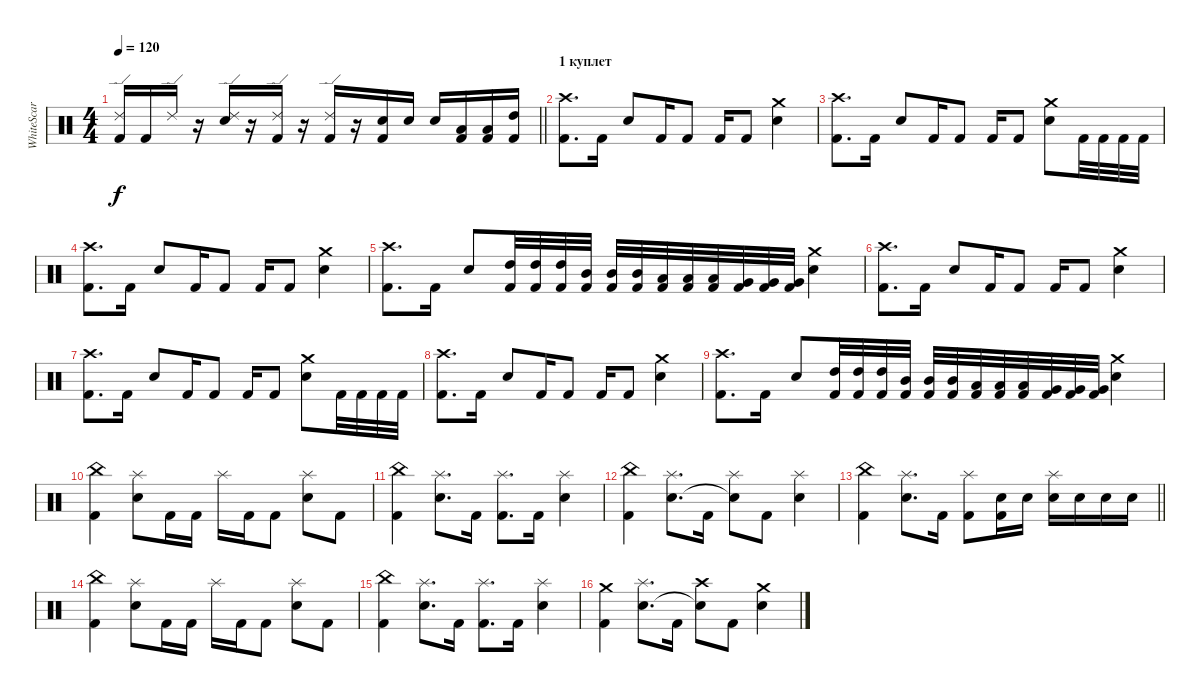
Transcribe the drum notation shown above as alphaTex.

\track ("WhiteScar" "WhiteScar") {instrument percussion}
\staff {score}
\articulation defaults
\ts (4 4)
\tempo 120
\clef neutral
\barLineRight lightlight
\ks c
("Ride (edge) 2" "Kick (hit) 2").16{dy f} "Kick (hit) 2".16 "Ride (edge) 2".16 r.16 ("Ride (edge) 2" "Snare (hit) 2").16 r.16 ("Ride (edge) 2" "Kick (hit) 2").16 r.16 ("Ride (edge) 2" "Kick (hit) 2").16 r.16 ("Snare (hit) 2" "Kick (hit) 2").16 "Snare (hit) 2".16 "Snare (hit) 2".16 ("Low Tom (hit)" "Kick (hit) 2").16 ("Low Tom (hit)" "Kick (hit) 2").16 ("High Tom (hit)" "Kick (hit) 2").16 |
\section ("" "1 куплет")
("Crash high (hit)" "Kick (hit) 2").8{d} "Kick (hit) 2".16 "Snare (hit) 2".8 "Kick (hit) 2".16 "Kick (hit) 2".8 "Kick (hit) 2".16 "Kick (hit) 2".8 ("Crash medium (hit)" "Snare (hit) 2").4 |
("Crash high (hit)" "Kick (hit) 2").8{d} "Kick (hit) 2".16 "Snare (hit) 2".8 "Kick (hit) 2".16 "Kick (hit) 2".8 "Kick (hit) 2".16 "Kick (hit) 2".8 ("Crash medium (hit)" "Snare (hit) 2").8 "Kick (hit) 2".32 "Kick (hit) 2".32 "Kick (hit) 2".32 "Kick (hit) 2".32 |
("Crash high (hit)" "Kick (hit) 2").8{d} "Kick (hit) 2".16 "Snare (hit) 2".8 "Kick (hit) 2".16 "Kick (hit) 2".8 "Kick (hit) 2".16 "Kick (hit) 2".8 ("Crash medium (hit)" "Snare (hit) 2").4 |
("Crash high (hit)" "Kick (hit) 2").8{d} "Kick (hit) 2".16 "Snare (hit) 2".8 ("High Tom (hit)" "Kick (hit) 2").32 ("High Tom (hit)" "Kick (hit) 2").32 ("High Tom (hit)" "Kick (hit) 2").32 ("Mid Tom (hit)" "Kick (hit) 2").32 ("Mid Tom (hit)" "Kick (hit) 2").32 ("Mid Tom (hit)" "Kick (hit) 2").32 ("Low Tom (hit)" "Kick (hit) 2").32 ("Low Tom (hit)" "Kick (hit) 2").32 ("Low Tom (hit)" "Kick (hit) 2").32 ("Very Low Tom (hit)" "Kick (hit) 2").32 ("Very Low Tom (hit)" "Kick (hit) 2").32 ("Very Low Tom (hit)" "Kick (hit) 2").32 ("Crash medium (hit)" "Snare (hit) 2").4 |
("Crash high (hit)" "Kick (hit) 2").8{d} "Kick (hit) 2".16 "Snare (hit) 2".8 "Kick (hit) 2".16 "Kick (hit) 2".8 "Kick (hit) 2".16 "Kick (hit) 2".8 ("Crash medium (hit)" "Snare (hit) 2").4 |
("Crash high (hit)" "Kick (hit) 2").8{d} "Kick (hit) 2".16 "Snare (hit) 2".8 "Kick (hit) 2".16 "Kick (hit) 2".8 "Kick (hit) 2".16 "Kick (hit) 2".8 ("Crash medium (hit)" "Snare (hit) 2").8 "Kick (hit) 2".32 "Kick (hit) 2".32 "Kick (hit) 2".32 "Kick (hit) 2".32 |
("Crash high (hit)" "Kick (hit) 2").8{d} "Kick (hit) 2".16 "Snare (hit) 2".8 "Kick (hit) 2".16 "Kick (hit) 2".8 "Kick (hit) 2".16 "Kick (hit) 2".8 ("Crash medium (hit)" "Snare (hit) 2").4 |
("Crash high (hit)" "Kick (hit) 2").8{d} "Kick (hit) 2".16 "Snare (hit) 2".8 ("High Tom (hit)" "Kick (hit) 2").32 ("High Tom (hit)" "Kick (hit) 2").32 ("High Tom (hit)" "Kick (hit) 2").32 ("Mid Tom (hit)" "Kick (hit) 2").32 ("Mid Tom (hit)" "Kick (hit) 2").32 ("Mid Tom (hit)" "Kick (hit) 2").32 ("Low Tom (hit)" "Kick (hit) 2").32 ("Low Tom (hit)" "Kick (hit) 2").32 ("Low Tom (hit)" "Kick (hit) 2").32 ("Very Low Tom (hit)" "Kick (hit) 2").32 ("Very Low Tom (hit)" "Kick (hit) 2").32 ("Very Low Tom (hit)" "Kick (hit) 2").32 ("Crash medium (hit)" "Snare (hit) 2").4 |
("China (hit)" "Kick (hit) 2").4 ("Splash (hit)" "Snare (hit) 2").8 "Kick (hit) 2".16 "Kick (hit) 2".16 "Splash (hit)".16 "Kick (hit) 2".16 "Kick (hit) 2".8 ("Splash (hit)" "Snare (hit) 2").8 "Kick (hit) 2".8 |
("China (hit)" "Kick (hit) 2").4 ("Splash (hit)" "Snare (hit) 2").8{d} "Kick (hit) 2".16 ("Splash (hit)" "Kick (hit) 2").8{d} "Kick (hit) 2".16 ("Splash (hit)" "Snare (hit) 2").4 |
("China (hit)" "Kick (hit) 2").4 ("Splash (hit)" "Snare (hit) 2").8{d} "Kick (hit) 2".16 ("Splash (hit)" "Snare (hit)"{t}).8 "Kick (hit) 2".8 ("Splash (hit)" "Snare (hit) 2").4 |
\barLineRight lightlight
("China (hit)" "Kick (hit) 2").4 ("Splash (hit)" "Snare (hit) 2").8{d} "Kick (hit) 2".16 ("Splash (hit)" "Kick (hit) 2").8 ("Snare (hit) 2" "Kick (hit) 2").16 "Snare (hit) 2".16 ("Splash (hit)" "Snare (hit) 2").16 "Snare (hit) 2".16 "Snare (hit) 2".16 "Snare (hit) 2".16 |
("China (hit)" "Kick (hit) 2").4 ("Splash (hit)" "Snare (hit) 2").8 "Kick (hit) 2".16 "Kick (hit) 2".16 "Splash (hit)".16 "Kick (hit) 2".16 "Kick (hit) 2".8 ("Splash (hit)" "Snare (hit) 2").8 "Kick (hit) 2".8 |
("China (hit)" "Kick (hit) 2").4 ("Splash (hit)" "Snare (hit) 2").8{d} "Kick (hit) 2".16 ("Splash (hit)" "Kick (hit) 2").8{d} "Kick (hit) 2".16 ("Splash (hit)" "Snare (hit) 2").4 |
("Crash medium (hit)" "Kick (hit) 2").4 ("Splash (hit)" "Snare (hit) 2").8{d} "Kick (hit) 2".16 ("Crash high (hit)" "Snare (hit)"{t}).8 "Kick (hit) 2".8 ("Crash medium (hit)" "Snare (hit) 2").4
